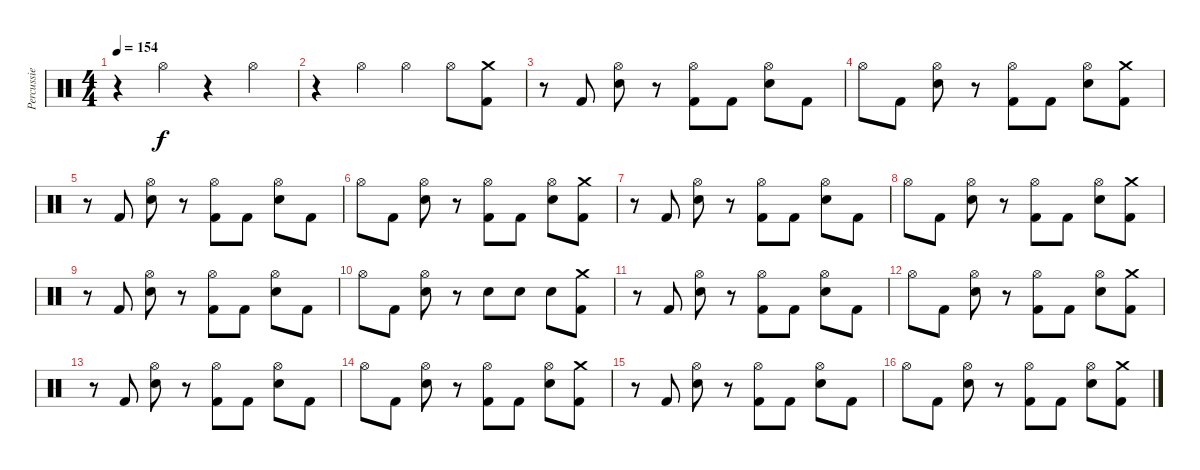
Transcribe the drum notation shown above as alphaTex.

\track ("Percussie" "Percussie") {instrument percussion}
\staff {score}
\articulation defaults
\ts (4 4)
\tempo 154
\clef neutral
\ks c
r.4{dy f} "Hi-Hat (open)".4 r.4 "Hi-Hat (open)".4 |
r.4 "Hi-Hat (open)".4 "Hi-Hat (open)".4 "Hi-Hat (open)".8 ("Crash medium (hit)" "Kick (hit) 2").8 |
r.8 "Kick (hit) 2".8 ("Hi-Hat (open)" "Snare (hit) 2").8 r.8 ("Hi-Hat (open)" "Kick (hit) 2").8 "Kick (hit) 2".8 ("Hi-Hat (open)" "Snare (hit) 2").8 "Kick (hit) 2".8 |
"Hi-Hat (open)".8 "Kick (hit) 2".8 ("Hi-Hat (open)" "Snare (hit) 2").8 r.8 ("Hi-Hat (open)" "Kick (hit) 2").8 "Kick (hit) 2".8 ("Hi-Hat (open)" "Snare (hit) 2").8 ("Crash medium (hit)" "Kick (hit) 2").8 |
r.8 "Kick (hit) 2".8 ("Hi-Hat (open)" "Snare (hit) 2").8 r.8 ("Hi-Hat (open)" "Kick (hit) 2").8 "Kick (hit) 2".8 ("Hi-Hat (open)" "Snare (hit) 2").8 "Kick (hit) 2".8 |
"Hi-Hat (open)".8 "Kick (hit) 2".8 ("Hi-Hat (open)" "Snare (hit) 2").8 r.8 ("Hi-Hat (open)" "Kick (hit) 2").8 "Kick (hit) 2".8 ("Hi-Hat (open)" "Snare (hit) 2").8 ("Crash medium (hit)" "Kick (hit) 2").8 |
r.8 "Kick (hit) 2".8 ("Hi-Hat (open)" "Snare (hit) 2").8 r.8 ("Hi-Hat (open)" "Kick (hit) 2").8 "Kick (hit) 2".8 ("Hi-Hat (open)" "Snare (hit) 2").8 "Kick (hit) 2".8 |
"Hi-Hat (open)".8 "Kick (hit) 2".8 ("Hi-Hat (open)" "Snare (hit) 2").8 r.8 ("Hi-Hat (open)" "Kick (hit) 2").8 "Kick (hit) 2".8 ("Hi-Hat (open)" "Snare (hit) 2").8 ("Crash medium (hit)" "Kick (hit) 2").8 |
r.8 "Kick (hit) 2".8 ("Hi-Hat (open)" "Snare (hit) 2").8 r.8 ("Hi-Hat (open)" "Kick (hit) 2").8 "Kick (hit) 2".8 ("Hi-Hat (open)" "Snare (hit) 2").8 "Kick (hit) 2".8 |
"Hi-Hat (open)".8 "Kick (hit) 2".8 ("Hi-Hat (open)" "Snare (hit) 2").8 r.8 "Snare (hit) 2".8 "Snare (hit) 2".8 "Snare (hit) 2".8 ("Crash medium (hit)" "Kick (hit) 2").8 |
r.8 "Kick (hit) 2".8 ("Hi-Hat (open)" "Snare (hit) 2").8 r.8 ("Hi-Hat (open)" "Kick (hit) 2").8 "Kick (hit) 2".8 ("Hi-Hat (open)" "Snare (hit) 2").8 "Kick (hit) 2".8 |
"Hi-Hat (open)".8 "Kick (hit) 2".8 ("Hi-Hat (open)" "Snare (hit) 2").8 r.8 ("Hi-Hat (open)" "Kick (hit) 2").8 "Kick (hit) 2".8 ("Hi-Hat (open)" "Snare (hit) 2").8 ("Crash medium (hit)" "Kick (hit) 2").8 |
r.8 "Kick (hit) 2".8 ("Hi-Hat (open)" "Snare (hit) 2").8 r.8 ("Hi-Hat (open)" "Kick (hit) 2").8 "Kick (hit) 2".8 ("Hi-Hat (open)" "Snare (hit) 2").8 "Kick (hit) 2".8 |
"Hi-Hat (open)".8 "Kick (hit) 2".8 ("Hi-Hat (open)" "Snare (hit) 2").8 r.8 ("Hi-Hat (open)" "Kick (hit) 2").8 "Kick (hit) 2".8 ("Hi-Hat (open)" "Snare (hit) 2").8 ("Crash medium (hit)" "Kick (hit) 2").8 |
r.8 "Kick (hit) 2".8 ("Hi-Hat (open)" "Snare (hit) 2").8 r.8 ("Hi-Hat (open)" "Kick (hit) 2").8 "Kick (hit) 2".8 ("Hi-Hat (open)" "Snare (hit) 2").8 "Kick (hit) 2".8 |
"Hi-Hat (open)".8 "Kick (hit) 2".8 ("Hi-Hat (open)" "Snare (hit) 2").8 r.8 ("Hi-Hat (open)" "Kick (hit) 2").8 "Kick (hit) 2".8 ("Hi-Hat (open)" "Snare (hit) 2").8 ("Crash medium (hit)" "Kick (hit) 2").8
